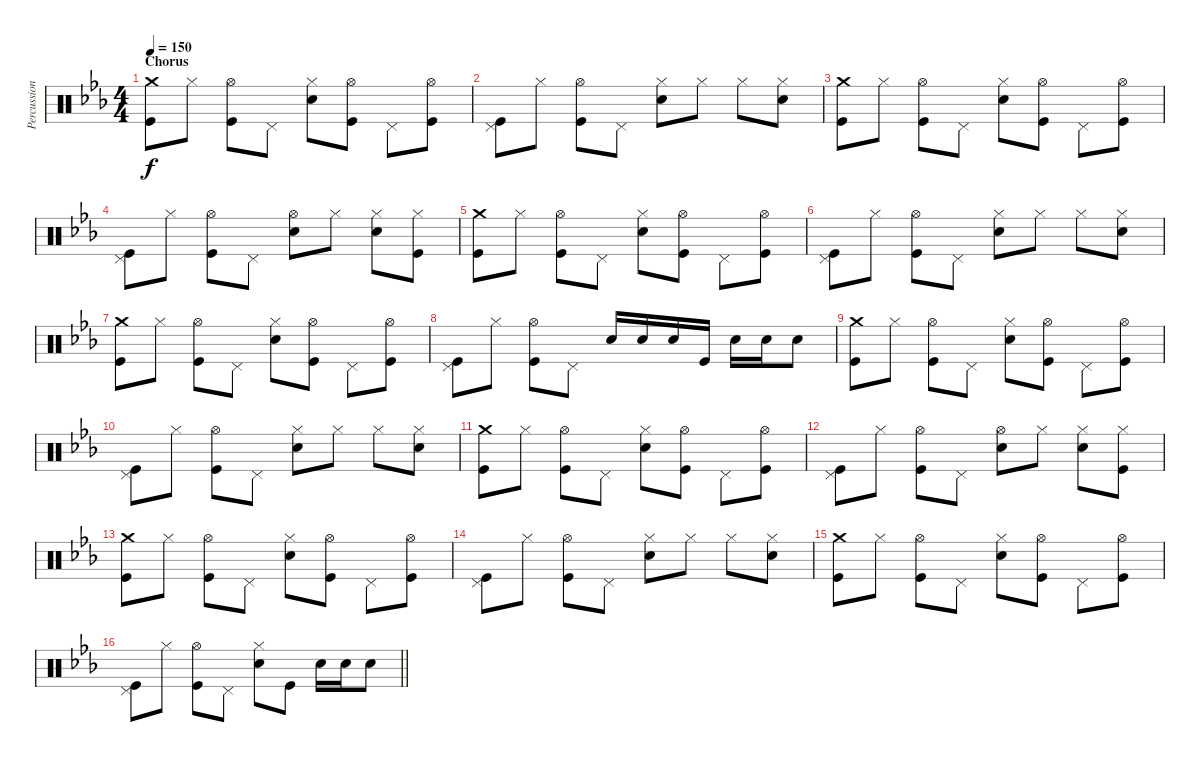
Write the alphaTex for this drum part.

\track ("Percussion" "Percussion") {instrument percussion}
\staff {score}
\articulation defaults
\ts (4 4)
\section ("" "Chorus")
\tempo 150
\clef neutral
\ks eb
("Crash medium (hit)" "Kick (hit)").8{dy f} "Hi-Hat (closed)".8 ("Hi-Hat (open)" "Kick (hit)").8 "Pedal Hi-Hat (hit)".8 ("Hi-Hat (closed)" "Electric Snare (hit)").8 ("Hi-Hat (open)" "Kick (hit)").8 "Pedal Hi-Hat (hit)".8 ("Hi-Hat (open)" "Kick (hit)").8 |
("Pedal Hi-Hat (hit)" "Kick (hit)").8 "Hi-Hat (closed)".8 ("Hi-Hat (open)" "Kick (hit)").8 "Pedal Hi-Hat (hit)".8 ("Hi-Hat (closed)" "Electric Snare (hit)").8 "Hi-Hat (closed)".8 "Hi-Hat (closed)".8 ("Hi-Hat (closed)" "Electric Snare (hit)").8 |
("Crash medium (hit)" "Kick (hit)").8 "Hi-Hat (closed)".8 ("Hi-Hat (open)" "Kick (hit)").8 "Pedal Hi-Hat (hit)".8 ("Hi-Hat (closed)" "Electric Snare (hit)").8 ("Hi-Hat (open)" "Kick (hit)").8 "Pedal Hi-Hat (hit)".8 ("Hi-Hat (open)" "Kick (hit)").8 |
("Pedal Hi-Hat (hit)" "Kick (hit)").8 "Hi-Hat (closed)".8 ("Hi-Hat (open)" "Kick (hit)").8 "Pedal Hi-Hat (hit)".8 ("Hi-Hat (open)" "Electric Snare (hit)").8 "Hi-Hat (closed)".8 ("Hi-Hat (closed)" "Electric Snare (hit)").8 ("Hi-Hat (closed)" "Kick (hit)").8 |
("Crash medium (hit)" "Kick (hit)").8 "Hi-Hat (closed)".8 ("Hi-Hat (open)" "Kick (hit)").8 "Pedal Hi-Hat (hit)".8 ("Hi-Hat (closed)" "Electric Snare (hit)").8 ("Hi-Hat (open)" "Kick (hit)").8 "Pedal Hi-Hat (hit)".8 ("Hi-Hat (open)" "Kick (hit)").8 |
("Pedal Hi-Hat (hit)" "Kick (hit)").8 "Hi-Hat (closed)".8 ("Hi-Hat (open)" "Kick (hit)").8 "Pedal Hi-Hat (hit)".8 ("Hi-Hat (closed)" "Electric Snare (hit)").8 "Hi-Hat (closed)".8 "Hi-Hat (closed)".8 ("Hi-Hat (closed)" "Electric Snare (hit)").8 |
("Crash medium (hit)" "Kick (hit)").8 "Hi-Hat (closed)".8 ("Hi-Hat (open)" "Kick (hit)").8 "Pedal Hi-Hat (hit)".8 ("Hi-Hat (closed)" "Electric Snare (hit)").8 ("Hi-Hat (open)" "Kick (hit)").8 "Pedal Hi-Hat (hit)".8 ("Hi-Hat (open)" "Kick (hit)").8 |
("Pedal Hi-Hat (hit)" "Kick (hit)").8 "Hi-Hat (closed)".8 ("Hi-Hat (open)" "Kick (hit)").8 "Pedal Hi-Hat (hit)".8 "Electric Snare (hit)".16 "Electric Snare (hit)".16 "Electric Snare (hit)".16 "Kick (hit)".16 "Electric Snare (hit)".16 "Electric Snare (hit)".16 "Electric Snare (hit)".8 |
("Crash medium (hit)" "Kick (hit)").8 "Hi-Hat (closed)".8 ("Hi-Hat (open)" "Kick (hit)").8 "Pedal Hi-Hat (hit)".8 ("Hi-Hat (closed)" "Electric Snare (hit)").8 ("Hi-Hat (open)" "Kick (hit)").8 "Pedal Hi-Hat (hit)".8 ("Hi-Hat (open)" "Kick (hit)").8 |
("Pedal Hi-Hat (hit)" "Kick (hit)").8 "Hi-Hat (closed)".8 ("Hi-Hat (open)" "Kick (hit)").8 "Pedal Hi-Hat (hit)".8 ("Hi-Hat (closed)" "Electric Snare (hit)").8 "Hi-Hat (closed)".8 "Hi-Hat (closed)".8 ("Hi-Hat (closed)" "Electric Snare (hit)").8 |
("Crash medium (hit)" "Kick (hit)").8 "Hi-Hat (closed)".8 ("Hi-Hat (open)" "Kick (hit)").8 "Pedal Hi-Hat (hit)".8 ("Hi-Hat (closed)" "Electric Snare (hit)").8 ("Hi-Hat (open)" "Kick (hit)").8 "Pedal Hi-Hat (hit)".8 ("Hi-Hat (open)" "Kick (hit)").8 |
("Pedal Hi-Hat (hit)" "Kick (hit)").8 "Hi-Hat (closed)".8 ("Hi-Hat (open)" "Kick (hit)").8 "Pedal Hi-Hat (hit)".8 ("Hi-Hat (open)" "Electric Snare (hit)").8 "Hi-Hat (closed)".8 ("Hi-Hat (closed)" "Electric Snare (hit)").8 ("Hi-Hat (closed)" "Kick (hit)").8 |
("Crash medium (hit)" "Kick (hit)").8 "Hi-Hat (closed)".8 ("Hi-Hat (open)" "Kick (hit)").8 "Pedal Hi-Hat (hit)".8 ("Hi-Hat (closed)" "Electric Snare (hit)").8 ("Hi-Hat (open)" "Kick (hit)").8 "Pedal Hi-Hat (hit)".8 ("Hi-Hat (open)" "Kick (hit)").8 |
("Pedal Hi-Hat (hit)" "Kick (hit)").8 "Hi-Hat (closed)".8 ("Hi-Hat (open)" "Kick (hit)").8 "Pedal Hi-Hat (hit)".8 ("Hi-Hat (closed)" "Electric Snare (hit)").8 "Hi-Hat (closed)".8 "Hi-Hat (closed)".8 ("Hi-Hat (closed)" "Electric Snare (hit)").8 |
("Crash medium (hit)" "Kick (hit)").8 "Hi-Hat (closed)".8 ("Hi-Hat (open)" "Kick (hit)").8 "Pedal Hi-Hat (hit)".8 ("Hi-Hat (closed)" "Electric Snare (hit)").8 ("Hi-Hat (open)" "Kick (hit)").8 "Pedal Hi-Hat (hit)".8 ("Hi-Hat (open)" "Kick (hit)").8 |
\barLineRight lightlight
("Pedal Hi-Hat (hit)" "Kick (hit)").8 "Hi-Hat (closed)".8 ("Hi-Hat (open)" "Kick (hit)").8 "Pedal Hi-Hat (hit)".8 ("Hi-Hat (closed)" "Electric Snare (hit)").8 "Kick (hit)".8 "Electric Snare (hit)".16 "Electric Snare (hit)".16 "Electric Snare (hit)".8
